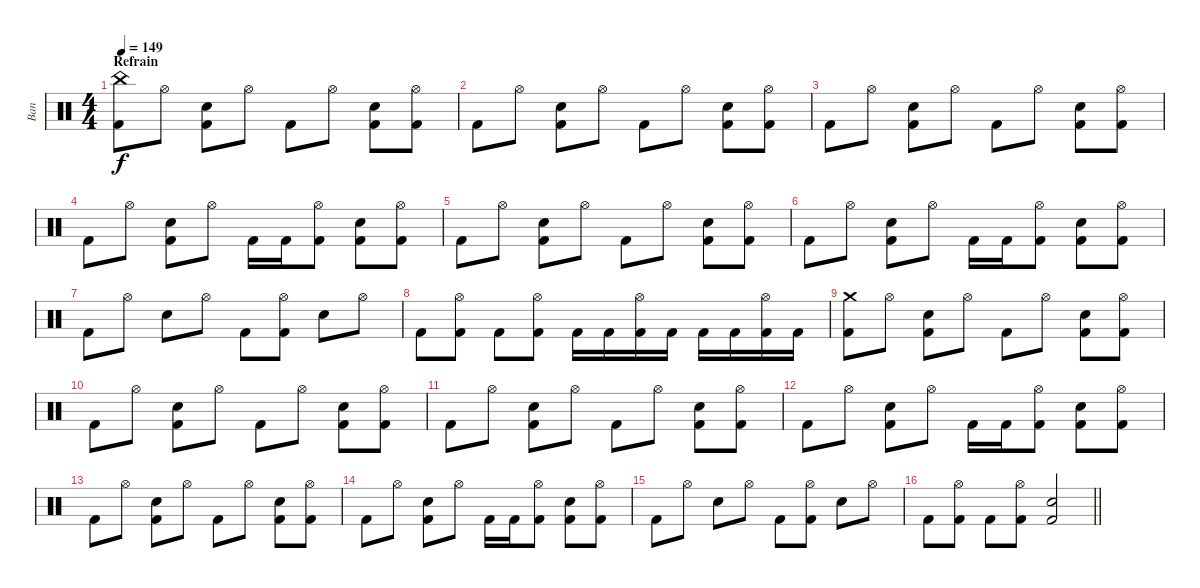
\track ("Ban" "Ban") {instrument percussion}
\staff {score}
\articulation defaults
\ts (4 4)
\section ("" "Refrain")
\tempo 149
\clef neutral
\ks c
("China (hit)" "Kick (hit) 2").8{dy f} "Hi-Hat (open)".8 ("Electric Snare (hit)" "Kick (hit) 2").8 "Hi-Hat (open)".8 "Kick (hit) 2".8 "Hi-Hat (open)".8 ("Electric Snare (hit)" "Kick (hit) 2").8 ("Hi-Hat (open)" "Kick (hit) 2").8 |
"Kick (hit) 2".8 "Hi-Hat (open)".8 ("Electric Snare (hit)" "Kick (hit) 2").8 "Hi-Hat (open)".8 "Kick (hit) 2".8 "Hi-Hat (open)".8 ("Electric Snare (hit)" "Kick (hit) 2").8 ("Hi-Hat (open)" "Kick (hit) 2").8 |
"Kick (hit) 2".8 "Hi-Hat (open)".8 ("Electric Snare (hit)" "Kick (hit) 2").8 "Hi-Hat (open)".8 "Kick (hit) 2".8 "Hi-Hat (open)".8 ("Electric Snare (hit)" "Kick (hit) 2").8 ("Hi-Hat (open)" "Kick (hit) 2").8 |
"Kick (hit) 2".8 "Hi-Hat (open)".8 ("Electric Snare (hit)" "Kick (hit) 2").8 "Hi-Hat (open)".8 "Kick (hit) 2".16 "Kick (hit) 2".16 ("Hi-Hat (open)" "Kick (hit) 2").8 ("Electric Snare (hit)" "Kick (hit) 2").8 ("Hi-Hat (open)" "Kick (hit) 2").8 |
"Kick (hit) 2".8 "Hi-Hat (open)".8 ("Electric Snare (hit)" "Kick (hit) 2").8 "Hi-Hat (open)".8 "Kick (hit) 2".8 "Hi-Hat (open)".8 ("Electric Snare (hit)" "Kick (hit) 2").8 ("Hi-Hat (open)" "Kick (hit) 2").8 |
"Kick (hit) 2".8 "Hi-Hat (open)".8 ("Electric Snare (hit)" "Kick (hit) 2").8 "Hi-Hat (open)".8 "Kick (hit) 2".16 "Kick (hit) 2".16 ("Hi-Hat (open)" "Kick (hit) 2").8 ("Electric Snare (hit)" "Kick (hit) 2").8 ("Hi-Hat (open)" "Kick (hit) 2").8 |
"Kick (hit) 2".8 "Hi-Hat (open)".8 "Electric Snare (hit)".8 "Hi-Hat (open)".8 "Kick (hit) 2".8 ("Hi-Hat (open)" "Kick (hit) 2").8 "Electric Snare (hit)".8 "Hi-Hat (open)".8 |
"Kick (hit) 2".8 ("Hi-Hat (open)" "Kick (hit) 2").8 "Kick (hit) 2".8 ("Hi-Hat (open)" "Kick (hit) 2").8 "Kick (hit) 2".16 "Kick (hit) 2".16 ("Hi-Hat (open)" "Kick (hit) 2").16 "Kick (hit) 2".16 "Kick (hit) 2".16 "Kick (hit) 2".16 ("Hi-Hat (open)" "Kick (hit) 2").16 "Kick (hit) 2".16 |
("Crash medium (hit)" "Kick (hit) 2").8 "Hi-Hat (open)".8 ("Electric Snare (hit)" "Kick (hit) 2").8 "Hi-Hat (open)".8 "Kick (hit) 2".8 "Hi-Hat (open)".8 ("Electric Snare (hit)" "Kick (hit) 2").8 ("Hi-Hat (open)" "Kick (hit) 2").8 |
"Kick (hit) 2".8 "Hi-Hat (open)".8 ("Electric Snare (hit)" "Kick (hit) 2").8 "Hi-Hat (open)".8 "Kick (hit) 2".8 "Hi-Hat (open)".8 ("Electric Snare (hit)" "Kick (hit) 2").8 ("Hi-Hat (open)" "Kick (hit) 2").8 |
"Kick (hit) 2".8 "Hi-Hat (open)".8 ("Electric Snare (hit)" "Kick (hit) 2").8 "Hi-Hat (open)".8 "Kick (hit) 2".8 "Hi-Hat (open)".8 ("Electric Snare (hit)" "Kick (hit) 2").8 ("Hi-Hat (open)" "Kick (hit) 2").8 |
"Kick (hit) 2".8 "Hi-Hat (open)".8 ("Electric Snare (hit)" "Kick (hit) 2").8 "Hi-Hat (open)".8 "Kick (hit) 2".16 "Kick (hit) 2".16 ("Hi-Hat (open)" "Kick (hit) 2").8 ("Electric Snare (hit)" "Kick (hit) 2").8 ("Hi-Hat (open)" "Kick (hit) 2").8 |
"Kick (hit) 2".8 "Hi-Hat (open)".8 ("Electric Snare (hit)" "Kick (hit) 2").8 "Hi-Hat (open)".8 "Kick (hit) 2".8 "Hi-Hat (open)".8 ("Electric Snare (hit)" "Kick (hit) 2").8 ("Hi-Hat (open)" "Kick (hit) 2").8 |
"Kick (hit) 2".8 "Hi-Hat (open)".8 ("Electric Snare (hit)" "Kick (hit) 2").8 "Hi-Hat (open)".8 "Kick (hit) 2".16 "Kick (hit) 2".16 ("Hi-Hat (open)" "Kick (hit) 2").8 ("Electric Snare (hit)" "Kick (hit) 2").8 ("Hi-Hat (open)" "Kick (hit) 2").8 |
"Kick (hit) 2".8 "Hi-Hat (open)".8 "Electric Snare (hit)".8 "Hi-Hat (open)".8 "Kick (hit) 2".8 ("Hi-Hat (open)" "Kick (hit) 2").8 "Electric Snare (hit)".8 "Hi-Hat (open)".8 |
\barLineRight lightlight "Kick (hit) 2".8
("Hi-Hat (open)" "Kick (hit) 2").8 "Kick (hit) 2".8 ("Hi-Hat (open)" "Kick (hit) 2").8 ("Electric Snare (hit)" "Kick (hit) 2").2
